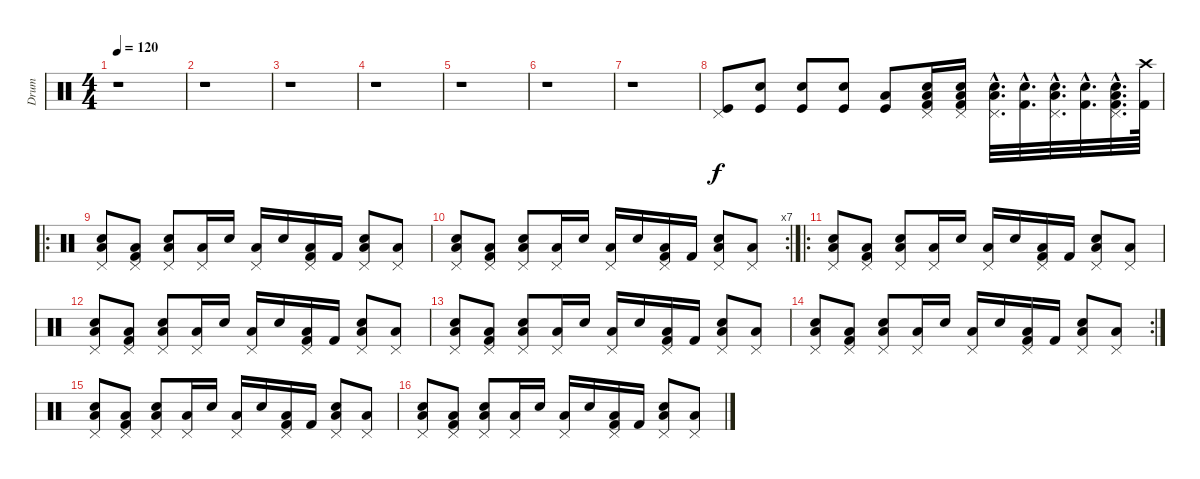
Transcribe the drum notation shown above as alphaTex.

\track ("Drum" "Drum") {instrument percussion}
\staff {score}
\articulation defaults
\ts (4 4)
\tempo 120
\clef neutral
\ks c
r.1{dy f} |
r.1 |
r.1 |
r.1 |
r.1 |
r.1 |
r.1 |
("Kick (hit)" "Pedal Hi-Hat (hit)").8 ("Snare (hit) 2" "Kick (hit)").8 ("Snare (hit) 2" "Kick (hit)").8 ("Snare (hit) 2" "Kick (hit)").8 ("Kick (hit)" "Low Floor Tom (hit)").8 ("Pedal Hi-Hat (hit)" "Low Floor Tom (hit)" "Snare (hit) 2" "Kick (hit) 2").16 ("Pedal Hi-Hat (hit)" "Low Floor Tom (hit)" "Snare (hit) 2" "Kick (hit) 2").16 ("Pedal Hi-Hat (hit)"{hac} "Low Floor Tom (hit)"{hac} "Snare (hit) 2"{hac}).32{d} ("Snare (hit) 2"{hac} "Kick (hit) 2"{hac}).32{d} ("Pedal Hi-Hat (hit)"{hac} "Low Floor Tom (hit)"{hac} "Snare (hit) 2"{hac}).32{d} ("Snare (hit) 2"{hac} "Kick (hit) 2"{hac}).32{d} ("Pedal Hi-Hat (hit)"{hac} "Low Floor Tom (hit)"{hac} "Snare (hit) 2"{hac} "Kick (hit) 2"{hac}).32{d} ("Crash high (hit)" "Kick (hit) 2").64 |
\ro
("Pedal Hi-Hat (hit)" "Low Floor Tom (hit)" "Snare (hit) 2").8 ("Pedal Hi-Hat (hit)" "Low Floor Tom (hit)" "Kick (hit) 2").8 ("Pedal Hi-Hat (hit)" "Low Floor Tom (hit)" "Snare (hit) 2").8 ("Pedal Hi-Hat (hit)" "Low Floor Tom (hit)").16 "Snare (hit) 2".16 ("Pedal Hi-Hat (hit)" "Low Floor Tom (hit)").16 "Snare (hit) 2".16 ("Pedal Hi-Hat (hit)" "Low Floor Tom (hit)" "Kick (hit) 2").16 "Kick (hit) 2".16 ("Pedal Hi-Hat (hit)" "Low Floor Tom (hit)" "Snare (hit) 2").8 ("Pedal Hi-Hat (hit)" "Low Floor Tom (hit)").8 |
\rc 7
("Pedal Hi-Hat (hit)" "Low Floor Tom (hit)" "Snare (hit) 2").8 ("Pedal Hi-Hat (hit)" "Low Floor Tom (hit)" "Kick (hit) 2").8 ("Pedal Hi-Hat (hit)" "Low Floor Tom (hit)" "Snare (hit) 2").8 ("Pedal Hi-Hat (hit)" "Low Floor Tom (hit)").16 "Snare (hit) 2".16 ("Pedal Hi-Hat (hit)" "Low Floor Tom (hit)").16 "Snare (hit) 2".16 ("Pedal Hi-Hat (hit)" "Low Floor Tom (hit)" "Kick (hit) 2").16 "Kick (hit) 2".16 ("Pedal Hi-Hat (hit)" "Low Floor Tom (hit)" "Snare (hit) 2").8 ("Pedal Hi-Hat (hit)" "Low Floor Tom (hit)").8 |
\ro
("Pedal Hi-Hat (hit)" "Low Floor Tom (hit)" "Snare (hit) 2").8 ("Pedal Hi-Hat (hit)" "Low Floor Tom (hit)" "Kick (hit) 2").8 ("Pedal Hi-Hat (hit)" "Low Floor Tom (hit)" "Snare (hit) 2").8 ("Pedal Hi-Hat (hit)" "Low Floor Tom (hit)").16 "Snare (hit) 2".16 ("Pedal Hi-Hat (hit)" "Low Floor Tom (hit)").16 "Snare (hit) 2".16 ("Pedal Hi-Hat (hit)" "Low Floor Tom (hit)" "Kick (hit) 2").16 "Kick (hit) 2".16 ("Pedal Hi-Hat (hit)" "Low Floor Tom (hit)" "Snare (hit) 2").8 ("Pedal Hi-Hat (hit)" "Low Floor Tom (hit)").8 |
("Pedal Hi-Hat (hit)" "Low Floor Tom (hit)" "Snare (hit) 2").8 ("Pedal Hi-Hat (hit)" "Low Floor Tom (hit)" "Kick (hit) 2").8 ("Pedal Hi-Hat (hit)" "Low Floor Tom (hit)" "Snare (hit) 2").8 ("Pedal Hi-Hat (hit)" "Low Floor Tom (hit)").16 "Snare (hit) 2".16 ("Pedal Hi-Hat (hit)" "Low Floor Tom (hit)").16 "Snare (hit) 2".16 ("Pedal Hi-Hat (hit)" "Low Floor Tom (hit)" "Kick (hit) 2").16 "Kick (hit) 2".16 ("Pedal Hi-Hat (hit)" "Low Floor Tom (hit)" "Snare (hit) 2").8 ("Pedal Hi-Hat (hit)" "Low Floor Tom (hit)").8 |
("Pedal Hi-Hat (hit)" "Low Floor Tom (hit)" "Snare (hit) 2").8 ("Pedal Hi-Hat (hit)" "Low Floor Tom (hit)" "Kick (hit) 2").8 ("Pedal Hi-Hat (hit)" "Low Floor Tom (hit)" "Snare (hit) 2").8 ("Pedal Hi-Hat (hit)" "Low Floor Tom (hit)").16 "Snare (hit) 2".16 ("Pedal Hi-Hat (hit)" "Low Floor Tom (hit)").16 "Snare (hit) 2".16 ("Pedal Hi-Hat (hit)" "Low Floor Tom (hit)" "Kick (hit) 2").16 "Kick (hit) 2".16 ("Pedal Hi-Hat (hit)" "Low Floor Tom (hit)" "Snare (hit) 2").8 ("Pedal Hi-Hat (hit)" "Low Floor Tom (hit)").8 |
\rc 2
("Pedal Hi-Hat (hit)" "Low Floor Tom (hit)" "Snare (hit) 2").8 ("Pedal Hi-Hat (hit)" "Low Floor Tom (hit)" "Kick (hit) 2").8 ("Pedal Hi-Hat (hit)" "Low Floor Tom (hit)" "Snare (hit) 2").8 ("Pedal Hi-Hat (hit)" "Low Floor Tom (hit)").16 "Snare (hit) 2".16 ("Pedal Hi-Hat (hit)" "Low Floor Tom (hit)").16 "Snare (hit) 2".16 ("Pedal Hi-Hat (hit)" "Low Floor Tom (hit)" "Kick (hit) 2").16 "Kick (hit) 2".16 ("Pedal Hi-Hat (hit)" "Low Floor Tom (hit)" "Snare (hit) 2").8 ("Pedal Hi-Hat (hit)" "Low Floor Tom (hit)").8 |
("Pedal Hi-Hat (hit)" "Low Floor Tom (hit)" "Snare (hit) 2").8 ("Pedal Hi-Hat (hit)" "Low Floor Tom (hit)" "Kick (hit) 2").8 ("Pedal Hi-Hat (hit)" "Low Floor Tom (hit)" "Snare (hit) 2").8 ("Pedal Hi-Hat (hit)" "Low Floor Tom (hit)").16 "Snare (hit) 2".16 ("Pedal Hi-Hat (hit)" "Low Floor Tom (hit)").16 "Snare (hit) 2".16 ("Pedal Hi-Hat (hit)" "Low Floor Tom (hit)" "Kick (hit) 2").16 "Kick (hit) 2".16 ("Pedal Hi-Hat (hit)" "Low Floor Tom (hit)" "Snare (hit) 2").8 ("Pedal Hi-Hat (hit)" "Low Floor Tom (hit)").8 |
("Pedal Hi-Hat (hit)" "Low Floor Tom (hit)" "Snare (hit) 2").8 ("Pedal Hi-Hat (hit)" "Low Floor Tom (hit)" "Kick (hit) 2").8 ("Pedal Hi-Hat (hit)" "Low Floor Tom (hit)" "Snare (hit) 2").8 ("Pedal Hi-Hat (hit)" "Low Floor Tom (hit)").16 "Snare (hit) 2".16 ("Pedal Hi-Hat (hit)" "Low Floor Tom (hit)").16 "Snare (hit) 2".16 ("Pedal Hi-Hat (hit)" "Low Floor Tom (hit)" "Kick (hit) 2").16 "Kick (hit) 2".16 ("Pedal Hi-Hat (hit)" "Low Floor Tom (hit)" "Snare (hit) 2").8 ("Pedal Hi-Hat (hit)" "Low Floor Tom (hit)").8
